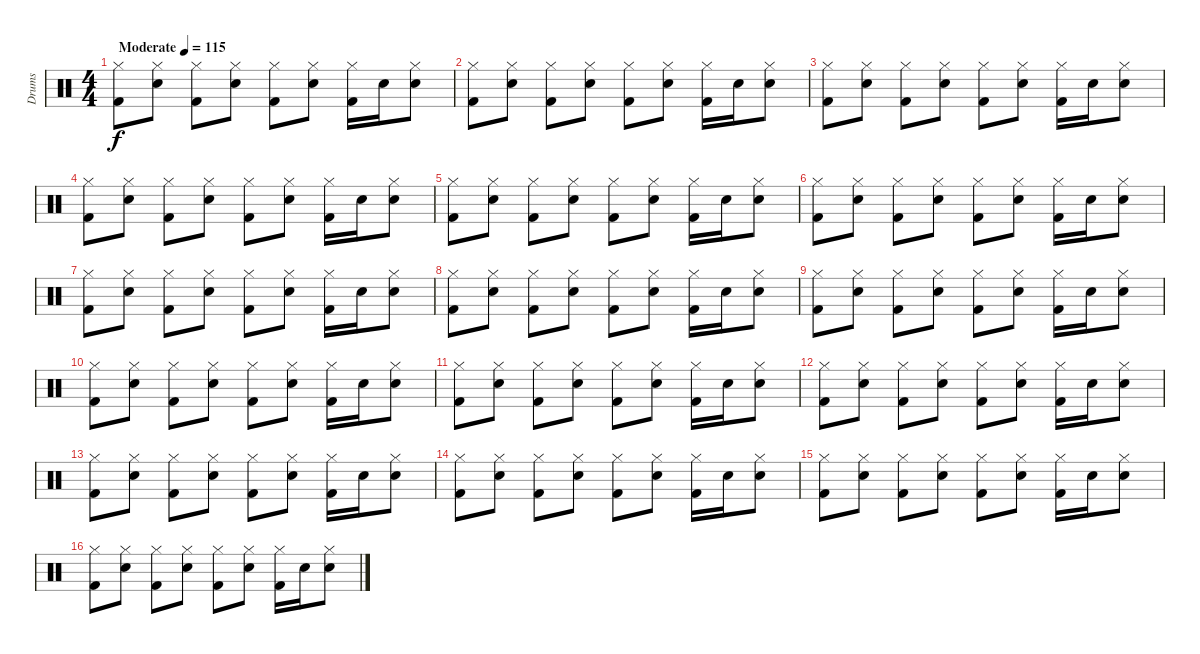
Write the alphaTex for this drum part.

\track ("Drums" "Drums") {instrument percussion}
\staff {score}
\articulation defaults
\ts (4 4)
\tempo (115 "Moderate")
\clef neutral
\ks c
("Hi-Hat (closed)" "Kick (hit) 2").8{dy f} ("Electric Snare (hit)" "Hi-Hat (closed)").8 ("Hi-Hat (closed)" "Kick (hit) 2").8 ("Electric Snare (hit)" "Hi-Hat (closed)").8 ("Hi-Hat (closed)" "Kick (hit) 2").8 ("Electric Snare (hit)" "Hi-Hat (closed)").8 ("Hi-Hat (closed)" "Kick (hit) 2").16 "Electric Snare (hit)".16 ("Electric Snare (hit)" "Hi-Hat (closed)").8 |
("Hi-Hat (closed)" "Kick (hit) 2").8 ("Electric Snare (hit)" "Hi-Hat (closed)").8 ("Hi-Hat (closed)" "Kick (hit) 2").8 ("Electric Snare (hit)" "Hi-Hat (closed)").8 ("Hi-Hat (closed)" "Kick (hit) 2").8 ("Electric Snare (hit)" "Hi-Hat (closed)").8 ("Hi-Hat (closed)" "Kick (hit) 2").16 "Electric Snare (hit)".16 ("Electric Snare (hit)" "Hi-Hat (closed)").8 |
("Hi-Hat (closed)" "Kick (hit) 2").8 ("Electric Snare (hit)" "Hi-Hat (closed)").8 ("Hi-Hat (closed)" "Kick (hit) 2").8 ("Electric Snare (hit)" "Hi-Hat (closed)").8 ("Hi-Hat (closed)" "Kick (hit) 2").8 ("Electric Snare (hit)" "Hi-Hat (closed)").8 ("Hi-Hat (closed)" "Kick (hit) 2").16 "Electric Snare (hit)".16 ("Electric Snare (hit)" "Hi-Hat (closed)").8 |
("Hi-Hat (closed)" "Kick (hit) 2").8 ("Electric Snare (hit)" "Hi-Hat (closed)").8 ("Hi-Hat (closed)" "Kick (hit) 2").8 ("Electric Snare (hit)" "Hi-Hat (closed)").8 ("Hi-Hat (closed)" "Kick (hit) 2").8 ("Electric Snare (hit)" "Hi-Hat (closed)").8 ("Hi-Hat (closed)" "Kick (hit) 2").16 "Electric Snare (hit)".16 ("Electric Snare (hit)" "Hi-Hat (closed)").8 |
("Hi-Hat (closed)" "Kick (hit) 2").8 ("Electric Snare (hit)" "Hi-Hat (closed)").8 ("Hi-Hat (closed)" "Kick (hit) 2").8 ("Electric Snare (hit)" "Hi-Hat (closed)").8 ("Hi-Hat (closed)" "Kick (hit) 2").8 ("Electric Snare (hit)" "Hi-Hat (closed)").8 ("Hi-Hat (closed)" "Kick (hit) 2").16 "Electric Snare (hit)".16 ("Electric Snare (hit)" "Hi-Hat (closed)").8 |
("Hi-Hat (closed)" "Kick (hit) 2").8 ("Electric Snare (hit)" "Hi-Hat (closed)").8 ("Hi-Hat (closed)" "Kick (hit) 2").8 ("Electric Snare (hit)" "Hi-Hat (closed)").8 ("Hi-Hat (closed)" "Kick (hit) 2").8 ("Electric Snare (hit)" "Hi-Hat (closed)").8 ("Hi-Hat (closed)" "Kick (hit) 2").16 "Electric Snare (hit)".16 ("Electric Snare (hit)" "Hi-Hat (closed)").8 |
("Hi-Hat (closed)" "Kick (hit) 2").8 ("Electric Snare (hit)" "Hi-Hat (closed)").8 ("Hi-Hat (closed)" "Kick (hit) 2").8 ("Electric Snare (hit)" "Hi-Hat (closed)").8 ("Hi-Hat (closed)" "Kick (hit) 2").8 ("Electric Snare (hit)" "Hi-Hat (closed)").8 ("Hi-Hat (closed)" "Kick (hit) 2").16 "Electric Snare (hit)".16 ("Electric Snare (hit)" "Hi-Hat (closed)").8 |
("Hi-Hat (closed)" "Kick (hit) 2").8 ("Electric Snare (hit)" "Hi-Hat (closed)").8 ("Hi-Hat (closed)" "Kick (hit) 2").8 ("Electric Snare (hit)" "Hi-Hat (closed)").8 ("Hi-Hat (closed)" "Kick (hit) 2").8 ("Electric Snare (hit)" "Hi-Hat (closed)").8 ("Hi-Hat (closed)" "Kick (hit) 2").16 "Electric Snare (hit)".16 ("Electric Snare (hit)" "Hi-Hat (closed)").8 |
("Hi-Hat (closed)" "Kick (hit) 2").8 ("Electric Snare (hit)" "Hi-Hat (closed)").8 ("Hi-Hat (closed)" "Kick (hit) 2").8 ("Electric Snare (hit)" "Hi-Hat (closed)").8 ("Hi-Hat (closed)" "Kick (hit) 2").8 ("Electric Snare (hit)" "Hi-Hat (closed)").8 ("Hi-Hat (closed)" "Kick (hit) 2").16 "Electric Snare (hit)".16 ("Electric Snare (hit)" "Hi-Hat (closed)").8 |
("Hi-Hat (closed)" "Kick (hit) 2").8 ("Electric Snare (hit)" "Hi-Hat (closed)").8 ("Hi-Hat (closed)" "Kick (hit) 2").8 ("Electric Snare (hit)" "Hi-Hat (closed)").8 ("Hi-Hat (closed)" "Kick (hit) 2").8 ("Electric Snare (hit)" "Hi-Hat (closed)").8 ("Hi-Hat (closed)" "Kick (hit) 2").16 "Electric Snare (hit)".16 ("Electric Snare (hit)" "Hi-Hat (closed)").8 |
("Hi-Hat (closed)" "Kick (hit) 2").8 ("Electric Snare (hit)" "Hi-Hat (closed)").8 ("Hi-Hat (closed)" "Kick (hit) 2").8 ("Electric Snare (hit)" "Hi-Hat (closed)").8 ("Hi-Hat (closed)" "Kick (hit) 2").8 ("Electric Snare (hit)" "Hi-Hat (closed)").8 ("Hi-Hat (closed)" "Kick (hit) 2").16 "Electric Snare (hit)".16 ("Electric Snare (hit)" "Hi-Hat (closed)").8 |
("Hi-Hat (closed)" "Kick (hit) 2").8 ("Electric Snare (hit)" "Hi-Hat (closed)").8 ("Hi-Hat (closed)" "Kick (hit) 2").8 ("Electric Snare (hit)" "Hi-Hat (closed)").8 ("Hi-Hat (closed)" "Kick (hit) 2").8 ("Electric Snare (hit)" "Hi-Hat (closed)").8 ("Hi-Hat (closed)" "Kick (hit) 2").16 "Electric Snare (hit)".16 ("Electric Snare (hit)" "Hi-Hat (closed)").8 |
("Hi-Hat (closed)" "Kick (hit) 2").8 ("Electric Snare (hit)" "Hi-Hat (closed)").8 ("Hi-Hat (closed)" "Kick (hit) 2").8 ("Electric Snare (hit)" "Hi-Hat (closed)").8 ("Hi-Hat (closed)" "Kick (hit) 2").8 ("Electric Snare (hit)" "Hi-Hat (closed)").8 ("Hi-Hat (closed)" "Kick (hit) 2").16 "Electric Snare (hit)".16 ("Electric Snare (hit)" "Hi-Hat (closed)").8 |
("Hi-Hat (closed)" "Kick (hit) 2").8 ("Electric Snare (hit)" "Hi-Hat (closed)").8 ("Hi-Hat (closed)" "Kick (hit) 2").8 ("Electric Snare (hit)" "Hi-Hat (closed)").8 ("Hi-Hat (closed)" "Kick (hit) 2").8 ("Electric Snare (hit)" "Hi-Hat (closed)").8 ("Hi-Hat (closed)" "Kick (hit) 2").16 "Electric Snare (hit)".16 ("Electric Snare (hit)" "Hi-Hat (closed)").8 |
("Hi-Hat (closed)" "Kick (hit) 2").8 ("Electric Snare (hit)" "Hi-Hat (closed)").8 ("Hi-Hat (closed)" "Kick (hit) 2").8 ("Electric Snare (hit)" "Hi-Hat (closed)").8 ("Hi-Hat (closed)" "Kick (hit) 2").8 ("Electric Snare (hit)" "Hi-Hat (closed)").8 ("Hi-Hat (closed)" "Kick (hit) 2").16 "Electric Snare (hit)".16 ("Electric Snare (hit)" "Hi-Hat (closed)").8 |
("Hi-Hat (closed)" "Kick (hit) 2").8 ("Electric Snare (hit)" "Hi-Hat (closed)").8 ("Hi-Hat (closed)" "Kick (hit) 2").8 ("Electric Snare (hit)" "Hi-Hat (closed)").8 ("Hi-Hat (closed)" "Kick (hit) 2").8 ("Electric Snare (hit)" "Hi-Hat (closed)").8 ("Hi-Hat (closed)" "Kick (hit) 2").16 "Electric Snare (hit)".16 ("Electric Snare (hit)" "Hi-Hat (closed)").8
